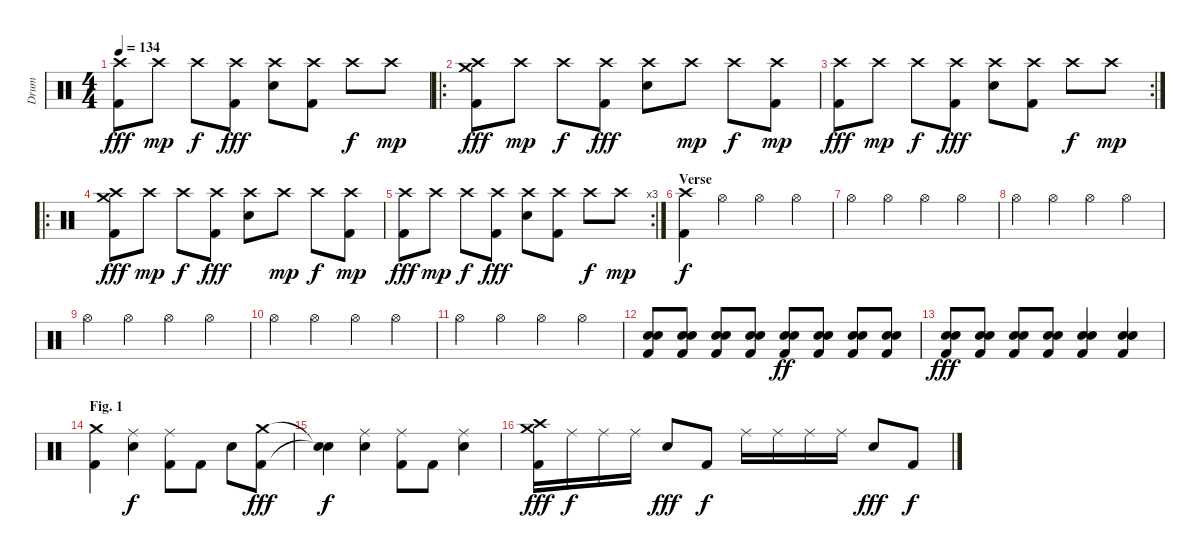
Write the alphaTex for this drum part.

\track ("Drum" "Drum") {instrument percussion}
\staff {score}
\articulation defaults
\ts (4 4)
\tempo 134
\clef neutral
\ks c
("Crash high (hit)" "Kick (hit) 2").8{dy fff} "Crash high (hit)".8{dy mp} "Crash high (hit)".8{dy f} ("Crash high (hit)" "Kick (hit) 2").8{dy fff} ("Crash high (hit)" "Snare (hit) 2").8 ("Crash high (hit)" "Kick (hit) 2").8 "Crash high (hit)".8{dy f} "Crash high (hit)".8{dy mp} |
\ro
("Crash medium (hit)" "Crash high (hit)" "Kick (hit) 2").8{dy fff} "Crash high (hit)".8{dy mp} "Crash high (hit)".8{dy f} ("Crash high (hit)" "Kick (hit) 2").8{dy fff} ("Crash high (hit)" "Snare (hit) 2").8 "Crash high (hit)".8{dy mp} "Crash high (hit)".8{dy f} ("Crash high (hit)" "Kick (hit) 2").8{dy mp} |
\rc 2
("Crash high (hit)" "Kick (hit) 2").8{dy fff} "Crash high (hit)".8{dy mp} "Crash high (hit)".8{dy f} ("Crash high (hit)" "Kick (hit) 2").8{dy fff} ("Crash high (hit)" "Snare (hit) 2").8 ("Crash high (hit)" "Kick (hit) 2").8 "Crash high (hit)".8{dy f} "Crash high (hit)".8{dy mp} |
\ro
("Crash medium (hit)" "Crash high (hit)" "Kick (hit) 2").8{dy fff} "Crash high (hit)".8{dy mp} "Crash high (hit)".8{dy f} ("Crash high (hit)" "Kick (hit) 2").8{dy fff} ("Crash high (hit)" "Snare (hit) 2").8 "Crash high (hit)".8{dy mp} "Crash high (hit)".8{dy f} ("Crash high (hit)" "Kick (hit) 2").8{dy mp} |
\rc 3
("Crash high (hit)" "Kick (hit) 2").8{dy fff} "Crash high (hit)".8{dy mp} "Crash high (hit)".8{dy f} ("Crash high (hit)" "Kick (hit) 2").8{dy fff} ("Crash high (hit)" "Snare (hit) 2").8 ("Crash high (hit)" "Kick (hit) 2").8 "Crash high (hit)".8{dy f} "Crash high (hit)".8{dy mp} |
\section ("" "Verse")
("Crash high (hit)" "Kick (hit) 2").4{dy f} "Hi-Hat (open)".4 "Hi-Hat (open)".4 "Hi-Hat (open)".4 |
"Hi-Hat (open)".4 "Hi-Hat (open)".4 "Hi-Hat (open)".4 "Hi-Hat (open)".4 |
"Hi-Hat (open)".4 "Hi-Hat (open)".4 "Hi-Hat (open)".4 "Hi-Hat (open)".4 |
"Hi-Hat (open)".4 "Hi-Hat (open)".4 "Hi-Hat (open)".4 "Hi-Hat (open)".4 |
"Hi-Hat (open)".4 "Hi-Hat (open)".4 "Hi-Hat (open)".4 "Hi-Hat (open)".4 |
"Hi-Hat (open)".4 "Hi-Hat (open)".4 "Hi-Hat (open)".4 "Hi-Hat (open)".4 |
("Snare (hit) 2" "Snare (hit) 2" "Kick (hit) 2").8 ("Snare (hit) 2" "Snare (hit) 2" "Kick (hit) 2").8 ("Snare (hit) 2" "Snare (hit) 2" "Kick (hit) 2").8 ("Snare (hit) 2" "Snare (hit) 2" "Kick (hit) 2").8 ("Snare (hit) 2" "Snare (hit) 2" "Kick (hit) 2").8{dy ff} ("Snare (hit) 2" "Snare (hit) 2" "Kick (hit) 2").8 ("Snare (hit) 2" "Snare (hit) 2" "Kick (hit) 2").8 ("Snare (hit) 2" "Snare (hit) 2" "Kick (hit) 2").8 |
("Snare (hit) 2" "Snare (hit) 2" "Kick (hit) 2").8{dy fff} ("Snare (hit) 2" "Snare (hit) 2" "Kick (hit) 2").8 ("Snare (hit) 2" "Snare (hit) 2" "Kick (hit) 2").8 ("Snare (hit) 2" "Snare (hit) 2" "Kick (hit) 2").8 ("Snare (hit) 2" "Snare (hit) 2" "Kick (hit) 2").4 ("Snare (hit) 2" "Snare (hit) 2" "Kick (hit) 2").4 |
\section ("" "Fig. 1")
("Crash medium (hit)" "Kick (hit) 2").4 ("Ride (middle)" "Snare (hit) 2").4{dy f} ("Ride (middle)" "Kick (hit) 2").8 "Kick (hit) 2".8 "Snare (hit) 2".8 ("Crash medium (hit)" "Kick (hit) 2").8{dy fff} |
("Snare (hit)"{t} "Snare (hit)"{t}).4{dy f} ("Ride (middle)" "Snare (hit) 2").4 ("Ride (middle)" "Kick (hit) 2").8 "Kick (hit) 2".8 ("Ride (middle)" "Snare (hit) 2").4 |
("Crash medium (hit)" "Crash high (hit)" "Kick (hit) 2").16{dy fff} "Ride (middle)".16{dy f} "Ride (middle)".16 "Ride (middle)".16 "Snare (hit) 2".8{dy fff} "Kick (hit) 2".8{dy f} "Ride (middle)".16 "Ride (middle)".16 "Ride (middle)".16 "Ride (middle)".16 "Snare (hit) 2".8{dy fff} "Kick (hit) 2".8{dy f}
